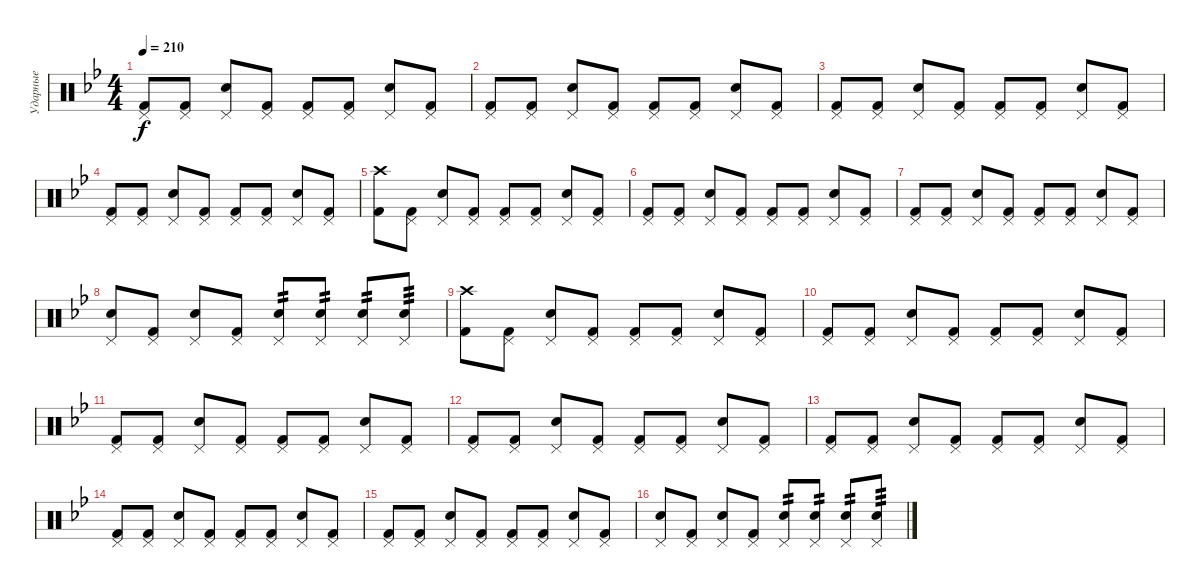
\track ("Ударные" "Ударные") {instrument percussion}
\staff {score}
\articulation defaults
\ts (4 4)
\tempo 210
\clef neutral
\ks bb
("Pedal Hi-Hat (hit)" "Kick (hit) 2").8{dy f} ("Pedal Hi-Hat (hit)" "Kick (hit) 2").8 ("Pedal Hi-Hat (hit)" "Electric Snare (hit)").8 ("Pedal Hi-Hat (hit)" "Kick (hit) 2").8 ("Pedal Hi-Hat (hit)" "Kick (hit) 2").8 ("Pedal Hi-Hat (hit)" "Kick (hit) 2").8 ("Pedal Hi-Hat (hit)" "Electric Snare (hit)").8 ("Pedal Hi-Hat (hit)" "Kick (hit) 2").8 |
("Pedal Hi-Hat (hit)" "Kick (hit) 2").8 ("Pedal Hi-Hat (hit)" "Kick (hit) 2").8 ("Pedal Hi-Hat (hit)" "Electric Snare (hit)").8 ("Pedal Hi-Hat (hit)" "Kick (hit) 2").8 ("Pedal Hi-Hat (hit)" "Kick (hit) 2").8 ("Pedal Hi-Hat (hit)" "Kick (hit) 2").8 ("Pedal Hi-Hat (hit)" "Electric Snare (hit)").8 ("Pedal Hi-Hat (hit)" "Kick (hit) 2").8 |
("Pedal Hi-Hat (hit)" "Kick (hit) 2").8 ("Pedal Hi-Hat (hit)" "Kick (hit) 2").8 ("Pedal Hi-Hat (hit)" "Electric Snare (hit)").8 ("Pedal Hi-Hat (hit)" "Kick (hit) 2").8 ("Pedal Hi-Hat (hit)" "Kick (hit) 2").8 ("Pedal Hi-Hat (hit)" "Kick (hit) 2").8 ("Pedal Hi-Hat (hit)" "Electric Snare (hit)").8 ("Pedal Hi-Hat (hit)" "Kick (hit) 2").8 |
("Pedal Hi-Hat (hit)" "Kick (hit) 2").8 ("Pedal Hi-Hat (hit)" "Kick (hit) 2").8 ("Pedal Hi-Hat (hit)" "Electric Snare (hit)").8 ("Pedal Hi-Hat (hit)" "Kick (hit) 2").8 ("Pedal Hi-Hat (hit)" "Kick (hit) 2").8 ("Pedal Hi-Hat (hit)" "Kick (hit) 2").8 ("Pedal Hi-Hat (hit)" "Electric Snare (hit)").8 ("Pedal Hi-Hat (hit)" "Kick (hit) 2").8 |
("Crash high (hit)" "Kick (hit) 2").8 ("Pedal Hi-Hat (hit)" "Kick (hit) 2").8 ("Pedal Hi-Hat (hit)" "Electric Snare (hit)").8 ("Pedal Hi-Hat (hit)" "Kick (hit) 2").8 ("Pedal Hi-Hat (hit)" "Kick (hit) 2").8 ("Pedal Hi-Hat (hit)" "Kick (hit) 2").8 ("Pedal Hi-Hat (hit)" "Electric Snare (hit)").8 ("Pedal Hi-Hat (hit)" "Kick (hit) 2").8 |
("Pedal Hi-Hat (hit)" "Kick (hit) 2").8 ("Pedal Hi-Hat (hit)" "Kick (hit) 2").8 ("Pedal Hi-Hat (hit)" "Electric Snare (hit)").8 ("Pedal Hi-Hat (hit)" "Kick (hit) 2").8 ("Pedal Hi-Hat (hit)" "Kick (hit) 2").8 ("Pedal Hi-Hat (hit)" "Kick (hit) 2").8 ("Pedal Hi-Hat (hit)" "Electric Snare (hit)").8 ("Pedal Hi-Hat (hit)" "Kick (hit) 2").8 |
("Pedal Hi-Hat (hit)" "Kick (hit) 2").8 ("Pedal Hi-Hat (hit)" "Kick (hit) 2").8 ("Pedal Hi-Hat (hit)" "Electric Snare (hit)").8 ("Pedal Hi-Hat (hit)" "Kick (hit) 2").8 ("Pedal Hi-Hat (hit)" "Kick (hit) 2").8 ("Pedal Hi-Hat (hit)" "Kick (hit) 2").8 ("Pedal Hi-Hat (hit)" "Electric Snare (hit)").8 ("Pedal Hi-Hat (hit)" "Kick (hit) 2").8 |
("Pedal Hi-Hat (hit)" "Electric Snare (hit)").8 ("Pedal Hi-Hat (hit)" "Kick (hit) 2").8 ("Pedal Hi-Hat (hit)" "Electric Snare (hit)").8 ("Pedal Hi-Hat (hit)" "Kick (hit) 2").8 ("Pedal Hi-Hat (hit)" "Electric Snare (hit)").8{tp 2} ("Pedal Hi-Hat (hit)" "Electric Snare (hit)").8{tp 2} ("Pedal Hi-Hat (hit)" "Electric Snare (hit)").8{tp 2} ("Pedal Hi-Hat (hit)" "Electric Snare (hit)").8{tp 3} |
("Crash high (hit)" "Kick (hit) 2").8 ("Pedal Hi-Hat (hit)" "Kick (hit) 2").8 ("Pedal Hi-Hat (hit)" "Electric Snare (hit)").8 ("Pedal Hi-Hat (hit)" "Kick (hit) 2").8 ("Pedal Hi-Hat (hit)" "Kick (hit) 2").8 ("Pedal Hi-Hat (hit)" "Kick (hit) 2").8 ("Pedal Hi-Hat (hit)" "Electric Snare (hit)").8 ("Pedal Hi-Hat (hit)" "Kick (hit) 2").8 |
("Pedal Hi-Hat (hit)" "Kick (hit) 2").8 ("Pedal Hi-Hat (hit)" "Kick (hit) 2").8 ("Pedal Hi-Hat (hit)" "Electric Snare (hit)").8 ("Pedal Hi-Hat (hit)" "Kick (hit) 2").8 ("Pedal Hi-Hat (hit)" "Kick (hit) 2").8 ("Pedal Hi-Hat (hit)" "Kick (hit) 2").8 ("Pedal Hi-Hat (hit)" "Electric Snare (hit)").8 ("Pedal Hi-Hat (hit)" "Kick (hit) 2").8 |
("Pedal Hi-Hat (hit)" "Kick (hit) 2").8 ("Pedal Hi-Hat (hit)" "Kick (hit) 2").8 ("Pedal Hi-Hat (hit)" "Electric Snare (hit)").8 ("Pedal Hi-Hat (hit)" "Kick (hit) 2").8 ("Pedal Hi-Hat (hit)" "Kick (hit) 2").8 ("Pedal Hi-Hat (hit)" "Kick (hit) 2").8 ("Pedal Hi-Hat (hit)" "Electric Snare (hit)").8 ("Pedal Hi-Hat (hit)" "Kick (hit) 2").8 |
("Pedal Hi-Hat (hit)" "Kick (hit) 2").8 ("Pedal Hi-Hat (hit)" "Kick (hit) 2").8 ("Pedal Hi-Hat (hit)" "Electric Snare (hit)").8 ("Pedal Hi-Hat (hit)" "Kick (hit) 2").8 ("Pedal Hi-Hat (hit)" "Kick (hit) 2").8 ("Pedal Hi-Hat (hit)" "Kick (hit) 2").8 ("Pedal Hi-Hat (hit)" "Electric Snare (hit)").8 ("Pedal Hi-Hat (hit)" "Kick (hit) 2").8 |
("Pedal Hi-Hat (hit)" "Kick (hit) 2").8 ("Pedal Hi-Hat (hit)" "Kick (hit) 2").8 ("Pedal Hi-Hat (hit)" "Electric Snare (hit)").8 ("Pedal Hi-Hat (hit)" "Kick (hit) 2").8 ("Pedal Hi-Hat (hit)" "Kick (hit) 2").8 ("Pedal Hi-Hat (hit)" "Kick (hit) 2").8 ("Pedal Hi-Hat (hit)" "Electric Snare (hit)").8 ("Pedal Hi-Hat (hit)" "Kick (hit) 2").8 |
("Pedal Hi-Hat (hit)" "Kick (hit) 2").8 ("Pedal Hi-Hat (hit)" "Kick (hit) 2").8 ("Pedal Hi-Hat (hit)" "Electric Snare (hit)").8 ("Pedal Hi-Hat (hit)" "Kick (hit) 2").8 ("Pedal Hi-Hat (hit)" "Kick (hit) 2").8 ("Pedal Hi-Hat (hit)" "Kick (hit) 2").8 ("Pedal Hi-Hat (hit)" "Electric Snare (hit)").8 ("Pedal Hi-Hat (hit)" "Kick (hit) 2").8 |
("Pedal Hi-Hat (hit)" "Kick (hit) 2").8 ("Pedal Hi-Hat (hit)" "Kick (hit) 2").8 ("Pedal Hi-Hat (hit)" "Electric Snare (hit)").8 ("Pedal Hi-Hat (hit)" "Kick (hit) 2").8 ("Pedal Hi-Hat (hit)" "Kick (hit) 2").8 ("Pedal Hi-Hat (hit)" "Kick (hit) 2").8 ("Pedal Hi-Hat (hit)" "Electric Snare (hit)").8 ("Pedal Hi-Hat (hit)" "Kick (hit) 2").8 |
("Pedal Hi-Hat (hit)" "Electric Snare (hit)").8 ("Pedal Hi-Hat (hit)" "Kick (hit) 2").8 ("Pedal Hi-Hat (hit)" "Electric Snare (hit)").8 ("Pedal Hi-Hat (hit)" "Kick (hit) 2").8 ("Pedal Hi-Hat (hit)" "Electric Snare (hit)").8{tp 2} ("Pedal Hi-Hat (hit)" "Electric Snare (hit)").8{tp 2} ("Pedal Hi-Hat (hit)" "Electric Snare (hit)").8{tp 2} ("Pedal Hi-Hat (hit)" "Electric Snare (hit)").8{tp 3}
